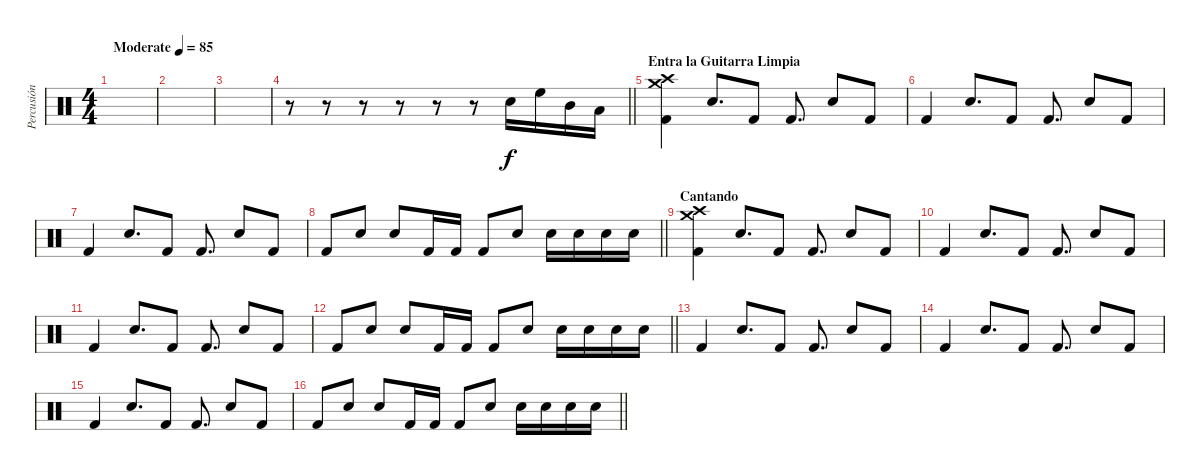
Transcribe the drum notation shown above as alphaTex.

\track ("Percusión" "Percusión") {instrument percussion}
\staff {score}
\articulation defaults
\ts (4 4)
\tempo (85 "Moderate")
\clef neutral
\ks c
|
|
|
\barLineRight lightlight
r.8 r.8 r.8 r.8 r.8 r.8 "Electric Snare (hit)".16 "High Floor Tom (hit)".16 "Mid Tom (hit)".16 "Low Tom (hit)".16 |
\section ("" "Entra la Guitarra Limpia")
("Crash high (hit)" "Crash medium (hit)" "Kick (hit) 2").4 "Electric Snare (hit)".8{d} "Kick (hit) 2".8 "Kick (hit) 2".8{d} "Electric Snare (hit)".8 "Kick (hit) 2".8 |
"Kick (hit) 2".4 "Electric Snare (hit)".8{d} "Kick (hit) 2".8 "Kick (hit) 2".8{d} "Electric Snare (hit)".8 "Kick (hit) 2".8 |
"Kick (hit) 2".4 "Electric Snare (hit)".8{d} "Kick (hit) 2".8 "Kick (hit) 2".8{d} "Electric Snare (hit)".8 "Kick (hit) 2".8 |
\barLineRight lightlight "Kick (hit) 2".8 "Electric Snare (hit)".8 "Electric Snare (hit)".8 "Kick (hit) 2".16 "Kick (hit) 2".16 "Kick (hit) 2".8 "Electric Snare (hit)".8 "Electric Snare (hit)".16 "Electric Snare (hit)".16 "Electric Snare (hit)".16 "Electric Snare (hit)".16
|
\section ("" "Cantando")
("Crash high (hit)" "Crash medium (hit)" "Kick (hit) 2").4 "Electric Snare (hit)".8{d} "Kick (hit) 2".8 "Kick (hit) 2".8{d} "Electric Snare (hit)".8 "Kick (hit) 2".8 |
"Kick (hit) 2".4 "Electric Snare (hit)".8{d} "Kick (hit) 2".8 "Kick (hit) 2".8{d} "Electric Snare (hit)".8 "Kick (hit) 2".8 |
"Kick (hit) 2".4 "Electric Snare (hit)".8{d} "Kick (hit) 2".8 "Kick (hit) 2".8{d} "Electric Snare (hit)".8 "Kick (hit) 2".8 |
\barLineRight lightlight "Kick (hit) 2".8 "Electric Snare (hit)".8 "Electric Snare (hit)".8 "Kick (hit) 2".16 "Kick (hit) 2".16 "Kick (hit) 2".8 "Electric Snare (hit)".8 "Electric Snare (hit)".16 "Electric Snare (hit)".16 "Electric Snare (hit)".16 "Electric Snare (hit)".16
|
"Kick (hit) 2".4 "Electric Snare (hit)".8{d} "Kick (hit) 2".8 "Kick (hit) 2".8{d} "Electric Snare (hit)".8 "Kick (hit) 2".8 |
"Kick (hit) 2".4 "Electric Snare (hit)".8{d} "Kick (hit) 2".8 "Kick (hit) 2".8{d} "Electric Snare (hit)".8 "Kick (hit) 2".8 |
"Kick (hit) 2".4 "Electric Snare (hit)".8{d} "Kick (hit) 2".8 "Kick (hit) 2".8{d} "Electric Snare (hit)".8 "Kick (hit) 2".8 |
\barLineRight lightlight "Kick (hit) 2".8 "Electric Snare (hit)".8 "Electric Snare (hit)".8 "Kick (hit) 2".16 "Kick (hit) 2".16 "Kick (hit) 2".8 "Electric Snare (hit)".8 "Electric Snare (hit)".16 "Electric Snare (hit)".16 "Electric Snare (hit)".16 "Electric Snare (hit)".16
